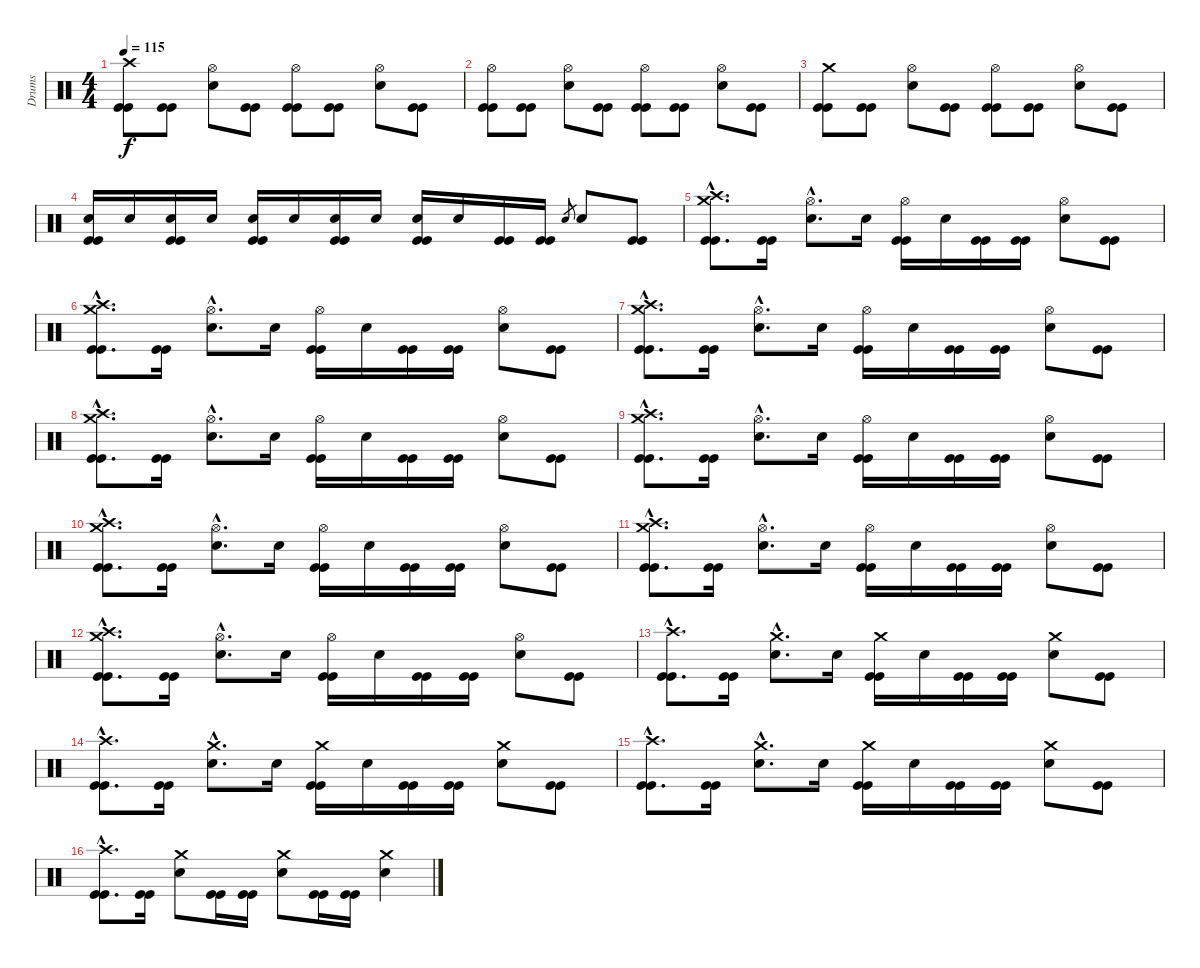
\track ("Drums" "Drums") {instrument percussion}
\staff {score}
\articulation defaults
\ts (4 4)
\tempo 115
\clef neutral
\ks c
("Crash high (hit)" "Kick (hit)" "Kick (hit)").8{dy f} ("Kick (hit)" "Kick (hit)").8 ("Hi-Hat (open)" "Electric Snare (hit)").8 ("Kick (hit)" "Kick (hit)").8 ("Hi-Hat (open)" "Kick (hit)" "Kick (hit)").8 ("Kick (hit)" "Kick (hit)").8 ("Hi-Hat (open)" "Electric Snare (hit)").8 ("Kick (hit)" "Kick (hit)").8 |
("Hi-Hat (open)" "Kick (hit)" "Kick (hit)").8 ("Kick (hit)" "Kick (hit)").8 ("Hi-Hat (open)" "Electric Snare (hit)").8 ("Kick (hit)" "Kick (hit)").8 ("Hi-Hat (open)" "Kick (hit)" "Kick (hit)").8 ("Kick (hit)" "Kick (hit)").8 ("Hi-Hat (open)" "Electric Snare (hit)").8 ("Kick (hit)" "Kick (hit)").8 |
("Crash medium (hit)" "Kick (hit)" "Kick (hit)").8 ("Kick (hit)" "Kick (hit)").8 ("Hi-Hat (open)" "Electric Snare (hit)").8 ("Kick (hit)" "Kick (hit)").8 ("Hi-Hat (open)" "Kick (hit)" "Kick (hit)").8 ("Kick (hit)" "Kick (hit)").8 ("Hi-Hat (open)" "Electric Snare (hit)").8 ("Kick (hit)" "Kick (hit)").8 |
("Electric Snare (hit)" "Kick (hit)" "Kick (hit)").16 "Electric Snare (hit)".16 ("Electric Snare (hit)" "Kick (hit)" "Kick (hit)").16 "Electric Snare (hit)".16 ("Electric Snare (hit)" "Kick (hit)" "Kick (hit)").16 "Electric Snare (hit)".16 ("Electric Snare (hit)" "Kick (hit)" "Kick (hit)").16 "Electric Snare (hit)".16 ("Electric Snare (hit)" "Kick (hit)" "Kick (hit)").16 "Electric Snare (hit)".16 ("Kick (hit)" "Kick (hit)").16 ("Kick (hit)" "Kick (hit)").16 "Electric Snare (hit)".8{gr} "Electric Snare (hit)".8 ("Kick (hit)" "Kick (hit)").8 |
("Crash high (hit)"{hac} "Crash medium (hit)"{hac} "Kick (hit)"{hac} "Kick (hit)"{hac}).8{d} ("Kick (hit)" "Kick (hit)").16 ("Hi-Hat (open)"{hac} "Electric Snare (hit)"{hac}).8{d} "Electric Snare (hit)".16 ("Hi-Hat (open)" "Kick (hit)" "Kick (hit)").16 "Electric Snare (hit)".16 ("Kick (hit)" "Kick (hit)").16 ("Kick (hit)" "Kick (hit)").16 ("Hi-Hat (open)" "Electric Snare (hit)").8 ("Kick (hit)" "Kick (hit)").8 |
("Crash high (hit)"{hac} "Crash medium (hit)"{hac} "Kick (hit)"{hac} "Kick (hit)"{hac}).8{d} ("Kick (hit)" "Kick (hit)").16 ("Hi-Hat (open)"{hac} "Electric Snare (hit)"{hac}).8{d} "Electric Snare (hit)".16 ("Hi-Hat (open)" "Kick (hit)" "Kick (hit)").16 "Electric Snare (hit)".16 ("Kick (hit)" "Kick (hit)").16 ("Kick (hit)" "Kick (hit)").16 ("Hi-Hat (open)" "Electric Snare (hit)").8 ("Kick (hit)" "Kick (hit)").8 |
("Crash high (hit)"{hac} "Crash medium (hit)"{hac} "Kick (hit)"{hac} "Kick (hit)"{hac}).8{d} ("Kick (hit)" "Kick (hit)").16 ("Hi-Hat (open)"{hac} "Electric Snare (hit)"{hac}).8{d} "Electric Snare (hit)".16 ("Hi-Hat (open)" "Kick (hit)" "Kick (hit)").16 "Electric Snare (hit)".16 ("Kick (hit)" "Kick (hit)").16 ("Kick (hit)" "Kick (hit)").16 ("Hi-Hat (open)" "Electric Snare (hit)").8 ("Kick (hit)" "Kick (hit)").8 |
("Crash high (hit)"{hac} "Crash medium (hit)"{hac} "Kick (hit)"{hac} "Kick (hit)"{hac}).8{d} ("Kick (hit)" "Kick (hit)").16 ("Hi-Hat (open)"{hac} "Electric Snare (hit)"{hac}).8{d} "Electric Snare (hit)".16 ("Hi-Hat (open)" "Kick (hit)" "Kick (hit)").16 "Electric Snare (hit)".16 ("Kick (hit)" "Kick (hit)").16 ("Kick (hit)" "Kick (hit)").16 ("Hi-Hat (open)" "Electric Snare (hit)").8 ("Kick (hit)" "Kick (hit)").8 |
("Crash high (hit)"{hac} "Crash medium (hit)"{hac} "Kick (hit)"{hac} "Kick (hit)"{hac}).8{d} ("Kick (hit)" "Kick (hit)").16 ("Hi-Hat (open)"{hac} "Electric Snare (hit)"{hac}).8{d} "Electric Snare (hit)".16 ("Hi-Hat (open)" "Kick (hit)" "Kick (hit)").16 "Electric Snare (hit)".16 ("Kick (hit)" "Kick (hit)").16 ("Kick (hit)" "Kick (hit)").16 ("Hi-Hat (open)" "Electric Snare (hit)").8 ("Kick (hit)" "Kick (hit)").8 |
("Crash high (hit)"{hac} "Crash medium (hit)"{hac} "Kick (hit)"{hac} "Kick (hit)"{hac}).8{d} ("Kick (hit)" "Kick (hit)").16 ("Hi-Hat (open)"{hac} "Electric Snare (hit)"{hac}).8{d} "Electric Snare (hit)".16 ("Hi-Hat (open)" "Kick (hit)" "Kick (hit)").16 "Electric Snare (hit)".16 ("Kick (hit)" "Kick (hit)").16 ("Kick (hit)" "Kick (hit)").16 ("Hi-Hat (open)" "Electric Snare (hit)").8 ("Kick (hit)" "Kick (hit)").8 |
("Crash high (hit)"{hac} "Crash medium (hit)"{hac} "Kick (hit)"{hac} "Kick (hit)"{hac}).8{d} ("Kick (hit)" "Kick (hit)").16 ("Hi-Hat (open)"{hac} "Electric Snare (hit)"{hac}).8{d} "Electric Snare (hit)".16 ("Hi-Hat (open)" "Kick (hit)" "Kick (hit)").16 "Electric Snare (hit)".16 ("Kick (hit)" "Kick (hit)").16 ("Kick (hit)" "Kick (hit)").16 ("Hi-Hat (open)" "Electric Snare (hit)").8 ("Kick (hit)" "Kick (hit)").8 |
("Crash high (hit)"{hac} "Crash medium (hit)"{hac} "Kick (hit)"{hac} "Kick (hit)"{hac}).8{d} ("Kick (hit)" "Kick (hit)").16 ("Hi-Hat (open)"{hac} "Electric Snare (hit)"{hac}).8{d} "Electric Snare (hit)".16 ("Hi-Hat (open)" "Kick (hit)" "Kick (hit)").16 "Electric Snare (hit)".16 ("Kick (hit)" "Kick (hit)").16 ("Kick (hit)" "Kick (hit)").16 ("Hi-Hat (open)" "Electric Snare (hit)").8 ("Kick (hit)" "Kick (hit)").8 |
("Crash high (hit)"{hac} "Kick (hit)"{hac} "Kick (hit)"{hac}).8{d} ("Kick (hit)" "Kick (hit)").16 ("Crash medium (hit)"{hac} "Electric Snare (hit)"{hac}).8{d} "Electric Snare (hit)".16 ("Crash medium (hit)" "Kick (hit)" "Kick (hit)").16 "Electric Snare (hit)".16 ("Kick (hit)" "Kick (hit)").16 ("Kick (hit)" "Kick (hit)").16 ("Crash medium (hit)" "Electric Snare (hit)").8 ("Kick (hit)" "Kick (hit)").8 |
("Crash high (hit)"{hac} "Kick (hit)"{hac} "Kick (hit)"{hac}).8{d} ("Kick (hit)" "Kick (hit)").16 ("Crash medium (hit)"{hac} "Electric Snare (hit)"{hac}).8{d} "Electric Snare (hit)".16 ("Crash medium (hit)" "Kick (hit)" "Kick (hit)").16 "Electric Snare (hit)".16 ("Kick (hit)" "Kick (hit)").16 ("Kick (hit)" "Kick (hit)").16 ("Crash medium (hit)" "Electric Snare (hit)").8 ("Kick (hit)" "Kick (hit)").8 |
("Crash high (hit)"{hac} "Kick (hit)"{hac} "Kick (hit)"{hac}).8{d} ("Kick (hit)" "Kick (hit)").16 ("Crash medium (hit)"{hac} "Electric Snare (hit)"{hac}).8{d} "Electric Snare (hit)".16 ("Crash medium (hit)" "Kick (hit)" "Kick (hit)").16 "Electric Snare (hit)".16 ("Kick (hit)" "Kick (hit)").16 ("Kick (hit)" "Kick (hit)").16 ("Crash medium (hit)" "Electric Snare (hit)").8 ("Kick (hit)" "Kick (hit)").8 |
("Crash high (hit)"{hac} "Kick (hit)"{hac} "Kick (hit)"{hac}).8{d} ("Kick (hit)" "Kick (hit)").16 ("Crash medium (hit)" "Electric Snare (hit)").8 ("Kick (hit)" "Kick (hit)").16 ("Kick (hit)" "Kick (hit)").16 ("Crash medium (hit)" "Electric Snare (hit)").8 ("Kick (hit)" "Kick (hit)").16 ("Kick (hit)" "Kick (hit)").16 ("Crash medium (hit)" "Electric Snare (hit)").4
